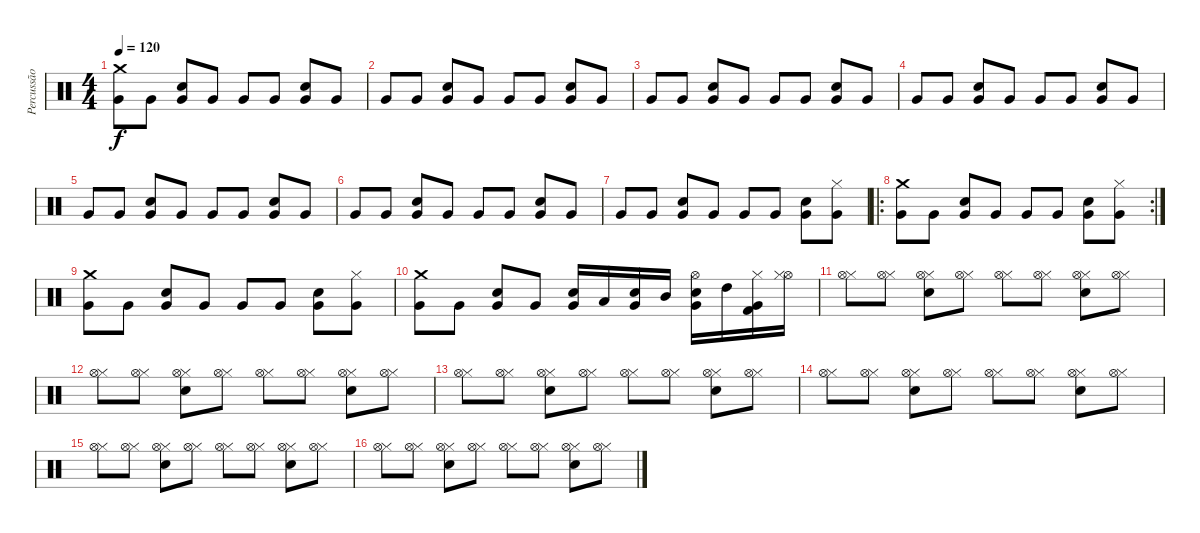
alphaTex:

\track ("Percussão" "Percussão") {instrument percussion}
\staff {score}
\articulation defaults
\ts (4 4)
\tempo 120
\clef neutral
\ks c
("Very Low Tom (hit)" "Crash medium (hit)").8{dy f} "Very Low Tom (hit)".8 ("Very Low Tom (hit)" "Snare (hit) 2").8 "Very Low Tom (hit)".8 "Very Low Tom (hit)".8 "Very Low Tom (hit)".8 ("Very Low Tom (hit)" "Snare (hit) 2").8 "Very Low Tom (hit)".8 |
"Very Low Tom (hit)".8 "Very Low Tom (hit)".8 ("Very Low Tom (hit)" "Snare (hit) 2").8 "Very Low Tom (hit)".8 "Very Low Tom (hit)".8 "Very Low Tom (hit)".8 ("Very Low Tom (hit)" "Snare (hit) 2").8 "Very Low Tom (hit)".8 |
"Very Low Tom (hit)".8 "Very Low Tom (hit)".8 ("Very Low Tom (hit)" "Snare (hit) 2").8 "Very Low Tom (hit)".8 "Very Low Tom (hit)".8 "Very Low Tom (hit)".8 ("Very Low Tom (hit)" "Snare (hit) 2").8 "Very Low Tom (hit)".8 |
"Very Low Tom (hit)".8 "Very Low Tom (hit)".8 ("Very Low Tom (hit)" "Snare (hit) 2").8 "Very Low Tom (hit)".8 "Very Low Tom (hit)".8 "Very Low Tom (hit)".8 ("Very Low Tom (hit)" "Snare (hit) 2").8 "Very Low Tom (hit)".8 |
"Very Low Tom (hit)".8 "Very Low Tom (hit)".8 ("Very Low Tom (hit)" "Snare (hit) 2").8 "Very Low Tom (hit)".8 "Very Low Tom (hit)".8 "Very Low Tom (hit)".8 ("Very Low Tom (hit)" "Snare (hit) 2").8 "Very Low Tom (hit)".8 |
"Very Low Tom (hit)".8 "Very Low Tom (hit)".8 ("Very Low Tom (hit)" "Snare (hit) 2").8 "Very Low Tom (hit)".8 "Very Low Tom (hit)".8 "Very Low Tom (hit)".8 ("Very Low Tom (hit)" "Snare (hit) 2").8 "Very Low Tom (hit)".8 |
"Very Low Tom (hit)".8 "Very Low Tom (hit)".8 ("Very Low Tom (hit)" "Snare (hit) 2").8 "Very Low Tom (hit)".8 "Very Low Tom (hit)".8 "Very Low Tom (hit)".8 ("Very Low Tom (hit)" "Snare (hit) 2").8 ("Very Low Tom (hit)" "Hi-Hat (closed)").8 |
\ro
\rc 2
("Very Low Tom (hit)" "Crash medium (hit)").8 "Very Low Tom (hit)".8 ("Very Low Tom (hit)" "Snare (hit) 2").8 "Very Low Tom (hit)".8 "Very Low Tom (hit)".8 "Very Low Tom (hit)".8 ("Very Low Tom (hit)" "Snare (hit) 2").8 ("Very Low Tom (hit)" "Hi-Hat (closed)").8 |
("Very Low Tom (hit)" "Crash medium (hit)").8 "Very Low Tom (hit)".8 ("Very Low Tom (hit)" "Snare (hit) 2").8 "Very Low Tom (hit)".8 "Very Low Tom (hit)".8 "Very Low Tom (hit)".8 ("Very Low Tom (hit)" "Snare (hit) 2").8 ("Very Low Tom (hit)" "Hi-Hat (closed)").8 |
("Very Low Tom (hit)" "Crash medium (hit)").8 "Very Low Tom (hit)".8 ("Very Low Tom (hit)" "Snare (hit) 2").8 "Very Low Tom (hit)".8 ("Very Low Tom (hit)" "Snare (hit) 2").16 "Low Tom (hit)".16 ("Very Low Tom (hit)" "Snare (hit) 2").16 "Mid Tom (hit)".16 ("Very Low Tom (hit)" "Snare (hit) 2" "Hi-Hat (open)").16 "High Tom (hit)".16 ("Very Low Tom (hit)" "Kick (hit) 2" "Hi-Hat (closed)").16 ("Hi-Hat (open)" "Hi-Hat (closed)").16 |
("Hi-Hat (closed)" "Hi-Hat (open)").8{volume 14 balance 3} ("Hi-Hat (closed)" "Hi-Hat (open)").8 ("Hi-Hat (closed)" "Hi-Hat (open)" "Snare (hit) 2").8 ("Hi-Hat (closed)" "Hi-Hat (open)").8 ("Hi-Hat (closed)" "Hi-Hat (open)").8 ("Hi-Hat (closed)" "Hi-Hat (open)").8 ("Hi-Hat (closed)" "Hi-Hat (open)" "Snare (hit) 2").8 ("Hi-Hat (closed)" "Hi-Hat (open)").8 |
("Hi-Hat (closed)" "Hi-Hat (open)").8 ("Hi-Hat (closed)" "Hi-Hat (open)").8 ("Hi-Hat (closed)" "Hi-Hat (open)" "Snare (hit) 2").8 ("Hi-Hat (closed)" "Hi-Hat (open)").8 ("Hi-Hat (closed)" "Hi-Hat (open)").8 ("Hi-Hat (closed)" "Hi-Hat (open)").8 ("Hi-Hat (closed)" "Hi-Hat (open)" "Snare (hit) 2").8 ("Hi-Hat (closed)" "Hi-Hat (open)").8 |
("Hi-Hat (closed)" "Hi-Hat (open)").8 ("Hi-Hat (closed)" "Hi-Hat (open)").8 ("Hi-Hat (closed)" "Hi-Hat (open)" "Snare (hit) 2").8 ("Hi-Hat (closed)" "Hi-Hat (open)").8 ("Hi-Hat (closed)" "Hi-Hat (open)").8 ("Hi-Hat (closed)" "Hi-Hat (open)").8 ("Hi-Hat (closed)" "Hi-Hat (open)" "Snare (hit) 2").8 ("Hi-Hat (closed)" "Hi-Hat (open)").8 |
("Hi-Hat (closed)" "Hi-Hat (open)").8 ("Hi-Hat (closed)" "Hi-Hat (open)").8 ("Hi-Hat (closed)" "Hi-Hat (open)" "Snare (hit) 2").8 ("Hi-Hat (closed)" "Hi-Hat (open)").8 ("Hi-Hat (closed)" "Hi-Hat (open)").8 ("Hi-Hat (closed)" "Hi-Hat (open)").8 ("Hi-Hat (closed)" "Hi-Hat (open)" "Snare (hit) 2").8 ("Hi-Hat (closed)" "Hi-Hat (open)").8 |
("Hi-Hat (closed)" "Hi-Hat (open)").8 ("Hi-Hat (closed)" "Hi-Hat (open)").8 ("Hi-Hat (closed)" "Hi-Hat (open)" "Snare (hit) 2").8 ("Hi-Hat (closed)" "Hi-Hat (open)").8 ("Hi-Hat (closed)" "Hi-Hat (open)").8 ("Hi-Hat (closed)" "Hi-Hat (open)").8 ("Hi-Hat (closed)" "Hi-Hat (open)" "Snare (hit) 2").8 ("Hi-Hat (closed)" "Hi-Hat (open)").8 |
("Hi-Hat (closed)" "Hi-Hat (open)").8 ("Hi-Hat (closed)" "Hi-Hat (open)").8 ("Hi-Hat (closed)" "Hi-Hat (open)" "Snare (hit) 2").8 ("Hi-Hat (closed)" "Hi-Hat (open)").8 ("Hi-Hat (closed)" "Hi-Hat (open)").8 ("Hi-Hat (closed)" "Hi-Hat (open)").8 ("Hi-Hat (closed)" "Hi-Hat (open)" "Snare (hit) 2").8 ("Hi-Hat (closed)" "Hi-Hat (open)").8
